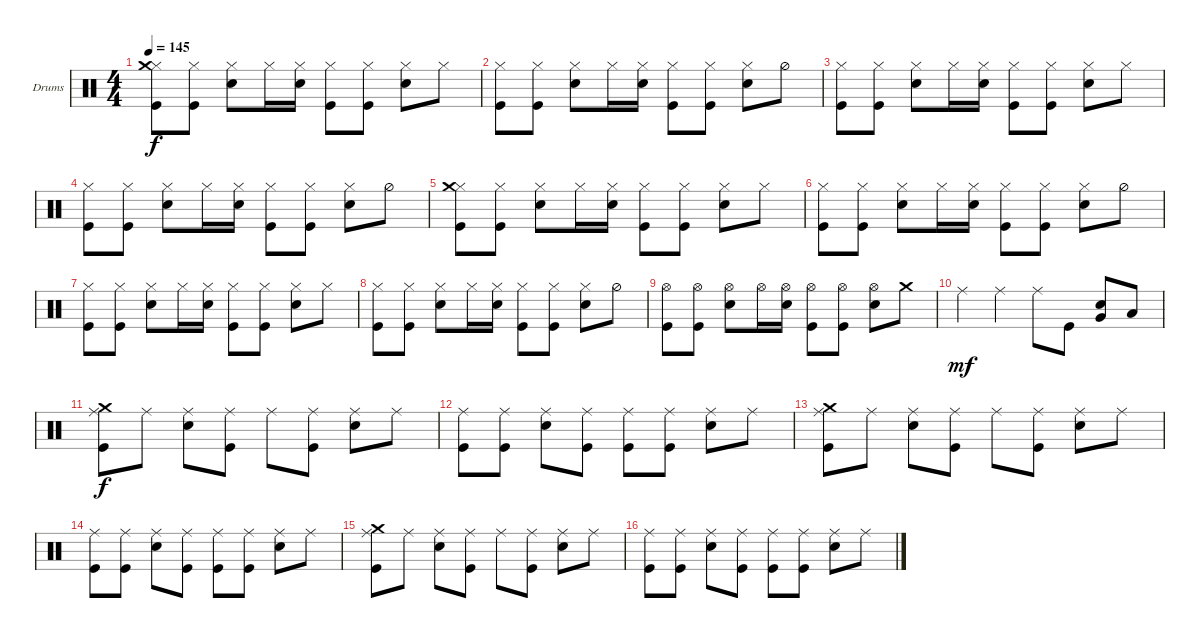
\defaultSystemsLayout 4
\bracketExtendMode groupsimilarinstruments
\firstSystemTrackNameOrientation horizontal
\otherSystemsTrackNameOrientation horizontal
\track ("Nikola" "Drums") {instrument percussion}
\staff {score}
\articulation defaults
\ts (4 4)
\tempo 145
\clef neutral
\ks c
("Kick (hit)" "Hi-Hat (closed)" "Crash medium (hit)").8{dy f} ("Kick (hit)" "Hi-Hat (closed)").8 ("Snare (hit) 2" "Hi-Hat (closed)").8 "Hi-Hat (closed)".16 ("Snare (hit) 2" "Hi-Hat (closed)").16 ("Kick (hit)" "Hi-Hat (closed)").8 ("Kick (hit)" "Hi-Hat (closed)").8 ("Snare (hit) 2" "Hi-Hat (closed)").8 "Hi-Hat (closed)".8 |
("Kick (hit)" "Hi-Hat (closed)").8 ("Kick (hit)" "Hi-Hat (closed)").8 ("Snare (hit) 2" "Hi-Hat (closed)").8 "Hi-Hat (closed)".16 ("Snare (hit) 2" "Hi-Hat (closed)").16 ("Kick (hit)" "Hi-Hat (closed)").8 ("Kick (hit)" "Hi-Hat (closed)").8 ("Snare (hit) 2" "Hi-Hat (closed)").8 "Hi-Hat (half)".8 |
("Kick (hit)" "Hi-Hat (closed)").8 ("Kick (hit)" "Hi-Hat (closed)").8 ("Snare (hit) 2" "Hi-Hat (closed)").8 "Hi-Hat (closed)".16 ("Snare (hit) 2" "Hi-Hat (closed)").16 ("Kick (hit)" "Hi-Hat (closed)").8 ("Kick (hit)" "Hi-Hat (closed)").8 ("Snare (hit) 2" "Hi-Hat (closed)").8 "Hi-Hat (closed)".8 |
("Kick (hit)" "Hi-Hat (closed)").8 ("Kick (hit)" "Hi-Hat (closed)").8 ("Snare (hit) 2" "Hi-Hat (closed)").8 "Hi-Hat (closed)".16 ("Snare (hit) 2" "Hi-Hat (closed)").16 ("Kick (hit)" "Hi-Hat (closed)").8 ("Kick (hit)" "Hi-Hat (closed)").8 ("Snare (hit) 2" "Hi-Hat (closed)").8 "Hi-Hat (half)".8 |
("Kick (hit)" "Hi-Hat (closed)" "Crash medium (hit)").8 ("Kick (hit)" "Hi-Hat (closed)").8 ("Snare (hit) 2" "Hi-Hat (closed)").8 "Hi-Hat (closed)".16 ("Snare (hit) 2" "Hi-Hat (closed)").16 ("Kick (hit)" "Hi-Hat (closed)").8 ("Kick (hit)" "Hi-Hat (closed)").8 ("Snare (hit) 2" "Hi-Hat (closed)").8 "Hi-Hat (closed)".8 |
("Kick (hit)" "Hi-Hat (closed)").8 ("Kick (hit)" "Hi-Hat (closed)").8 ("Snare (hit) 2" "Hi-Hat (closed)").8 "Hi-Hat (closed)".16 ("Snare (hit) 2" "Hi-Hat (closed)").16 ("Kick (hit)" "Hi-Hat (closed)").8 ("Kick (hit)" "Hi-Hat (closed)").8 ("Snare (hit) 2" "Hi-Hat (closed)").8 "Hi-Hat (half)".8 |
("Kick (hit)" "Hi-Hat (closed)").8 ("Kick (hit)" "Hi-Hat (closed)").8 ("Snare (hit) 2" "Hi-Hat (closed)").8 "Hi-Hat (closed)".16 ("Snare (hit) 2" "Hi-Hat (closed)").16 ("Kick (hit)" "Hi-Hat (closed)").8 ("Kick (hit)" "Hi-Hat (closed)").8 ("Snare (hit) 2" "Hi-Hat (closed)").8 "Hi-Hat (closed)".8 |
("Kick (hit)" "Hi-Hat (closed)").8 ("Kick (hit)" "Hi-Hat (closed)").8 ("Snare (hit) 2" "Hi-Hat (closed)").8 "Hi-Hat (closed)".16 ("Snare (hit) 2" "Hi-Hat (closed)").16 ("Kick (hit)" "Hi-Hat (closed)").8 ("Kick (hit)" "Hi-Hat (closed)").8 ("Snare (hit) 2" "Hi-Hat (closed)").8 "Hi-Hat (half)".8 |
("Kick (hit)" "Hi-Hat (open)").8 ("Kick (hit)" "Hi-Hat (open)").8 ("Snare (hit) 2" "Hi-Hat (open)").8 "Hi-Hat (open)".16 ("Snare (hit) 2" "Hi-Hat (open)").16 ("Kick (hit)" "Hi-Hat (open)").8 ("Kick (hit)" "Hi-Hat (open)").8 ("Snare (hit) 2" "Hi-Hat (open)").8 "Crash medium (hit)".8 |
"Ride (middle)".4{dy mf} "Ride (middle)".4 "Ride (middle)".8 "Kick (hit)".8 ("Snare (hit) 2" "Very Low Tom (hit)").8 "Low Tom (hit)".8 |
("Kick (hit)" "Ride (middle)" "Crash medium (hit)").8{dy f} "Ride (middle)".8 ("Snare (hit) 2" "Ride (middle)").8 ("Kick (hit)" "Ride (middle)").8 "Ride (middle)".8 ("Kick (hit)" "Ride (middle)").8 ("Snare (hit) 2" "Ride (middle)").8 "Ride (middle)".8 |
("Kick (hit)" "Ride (middle)").8 ("Kick (hit)" "Ride (middle)").8 ("Snare (hit) 2" "Ride (middle)").8 ("Kick (hit)" "Ride (middle)").8 ("Kick (hit)" "Ride (middle)").8 ("Kick (hit)" "Ride (middle)").8 ("Snare (hit) 2" "Ride (middle)").8 "Ride (middle)".8 |
("Crash medium (hit)" "Kick (hit)" "Ride (middle)").8 "Ride (middle)".8 ("Snare (hit) 2" "Ride (middle)").8 ("Kick (hit)" "Ride (middle)").8 "Ride (middle)".8 ("Kick (hit)" "Ride (middle)").8 ("Snare (hit) 2" "Ride (middle)").8 "Ride (middle)".8 |
("Kick (hit)" "Ride (middle)").8 ("Kick (hit)" "Ride (middle)").8 ("Snare (hit) 2" "Ride (middle)").8 ("Kick (hit)" "Ride (middle)").8 ("Kick (hit)" "Ride (middle)").8 ("Kick (hit)" "Ride (middle)").8 ("Snare (hit) 2" "Ride (middle)").8 "Ride (middle)".8 |
("Kick (hit)" "Ride (middle)" "Crash medium (hit)").8 "Ride (middle)".8 ("Snare (hit) 2" "Ride (middle)").8 ("Kick (hit)" "Ride (middle)").8 "Ride (middle)".8 ("Kick (hit)" "Ride (middle)").8 ("Snare (hit) 2" "Ride (middle)").8 "Ride (middle)".8 |
("Kick (hit)" "Ride (middle)").8 ("Kick (hit)" "Ride (middle)").8 ("Snare (hit) 2" "Ride (middle)").8 ("Kick (hit)" "Ride (middle)").8 ("Kick (hit)" "Ride (middle)").8 ("Kick (hit)" "Ride (middle)").8 ("Snare (hit) 2" "Ride (middle)").8 "Ride (middle)".8
